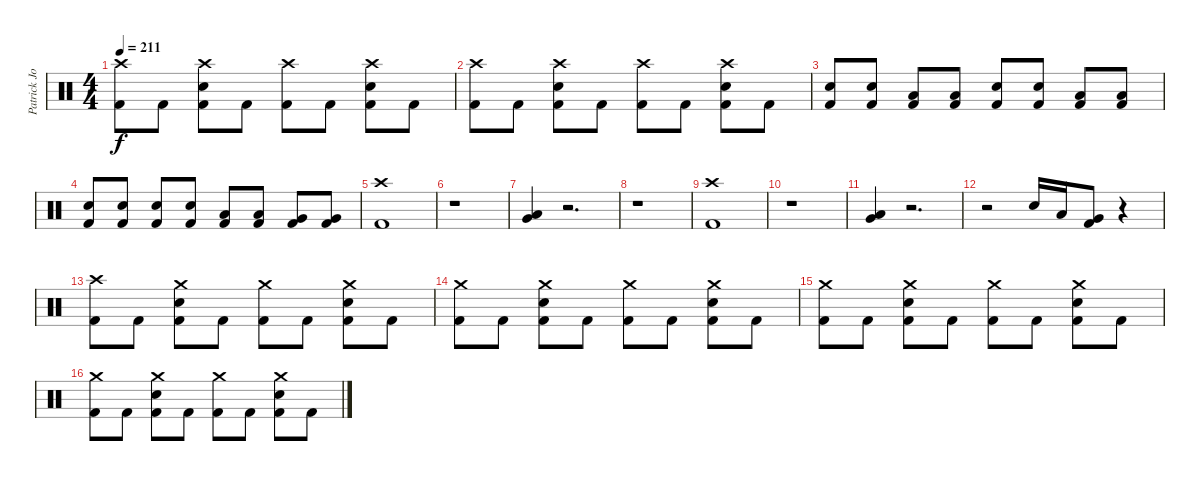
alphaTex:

\track ("Patrick Johansson" "Patrick Jo") {instrument percussion}
\staff {score}
\articulation defaults
\ts (4 4)
\tempo 211
\clef neutral
\ks c
("Crash high (hit)" "Kick (hit) 2").8{dy f} "Kick (hit) 2".8 ("Crash high (hit)" "Electric Snare (hit)" "Kick (hit) 2").8 "Kick (hit) 2".8 ("Crash high (hit)" "Kick (hit) 2").8 "Kick (hit) 2".8 ("Crash high (hit)" "Electric Snare (hit)" "Kick (hit) 2").8 "Kick (hit) 2".8 |
("Crash high (hit)" "Kick (hit) 2").8 "Kick (hit) 2".8 ("Crash high (hit)" "Electric Snare (hit)" "Kick (hit) 2").8 "Kick (hit) 2".8 ("Crash high (hit)" "Kick (hit) 2").8 "Kick (hit) 2".8 ("Crash high (hit)" "Electric Snare (hit)" "Kick (hit) 2").8 "Kick (hit) 2".8 |
("Electric Snare (hit)" "Kick (hit) 2").8 ("Electric Snare (hit)" "Kick (hit) 2").8 ("Low Tom (hit)" "Kick (hit) 2").8 ("Low Tom (hit)" "Kick (hit) 2").8 ("Electric Snare (hit)" "Kick (hit) 2").8 ("Electric Snare (hit)" "Kick (hit) 2").8 ("Low Tom (hit)" "Kick (hit) 2").8 ("Low Tom (hit)" "Kick (hit) 2").8 |
("Electric Snare (hit)" "Kick (hit) 2").8 ("Electric Snare (hit)" "Kick (hit) 2").8 ("Electric Snare (hit)" "Kick (hit) 2").8 ("Electric Snare (hit)" "Kick (hit) 2").8 ("Low Tom (hit)" "Kick (hit) 2").8 ("Low Tom (hit)" "Kick (hit) 2").8 ("Very Low Tom (hit)" "Kick (hit) 2").8 ("Very Low Tom (hit)" "Kick (hit) 2").8 |
("Crash high (hit)" "Kick (hit) 2").1 |
r.1 |
("Very Low Tom (hit)" "Low Floor Tom (hit)").4 r.2{d} |
r.1 |
("Crash high (hit)" "Kick (hit) 2").1 |
r.1 |
("Very Low Tom (hit)" "Low Floor Tom (hit)").4 r.2{d} |
r.2 "Electric Snare (hit)".16 "Low Tom (hit)".16 ("Very Low Tom (hit)" "Kick (hit) 2").8 r.4 |
("Crash high (hit)" "Kick (hit) 2").8 "Kick (hit) 2".8 ("Crash medium (hit)" "Electric Snare (hit)" "Kick (hit) 2").8 "Kick (hit) 2".8 ("Crash medium (hit)" "Kick (hit) 2").8 "Kick (hit) 2".8 ("Crash medium (hit)" "Electric Snare (hit)" "Kick (hit) 2").8 "Kick (hit) 2".8 |
("Crash medium (hit)" "Kick (hit) 2").8 "Kick (hit) 2".8 ("Crash medium (hit)" "Electric Snare (hit)" "Kick (hit) 2").8 "Kick (hit) 2".8 ("Crash medium (hit)" "Kick (hit) 2").8 "Kick (hit) 2".8 ("Crash medium (hit)" "Electric Snare (hit)" "Kick (hit) 2").8 "Kick (hit) 2".8 |
("Crash medium (hit)" "Kick (hit) 2").8 "Kick (hit) 2".8 ("Crash medium (hit)" "Electric Snare (hit)" "Kick (hit) 2").8 "Kick (hit) 2".8 ("Crash medium (hit)" "Kick (hit) 2").8 "Kick (hit) 2".8 ("Crash medium (hit)" "Electric Snare (hit)" "Kick (hit) 2").8 "Kick (hit) 2".8 |
("Crash medium (hit)" "Kick (hit) 2").8 "Kick (hit) 2".8 ("Crash medium (hit)" "Electric Snare (hit)" "Kick (hit) 2").8 "Kick (hit) 2".8 ("Crash medium (hit)" "Kick (hit) 2").8 "Kick (hit) 2".8 ("Crash medium (hit)" "Electric Snare (hit)" "Kick (hit) 2").8 "Kick (hit) 2".8
